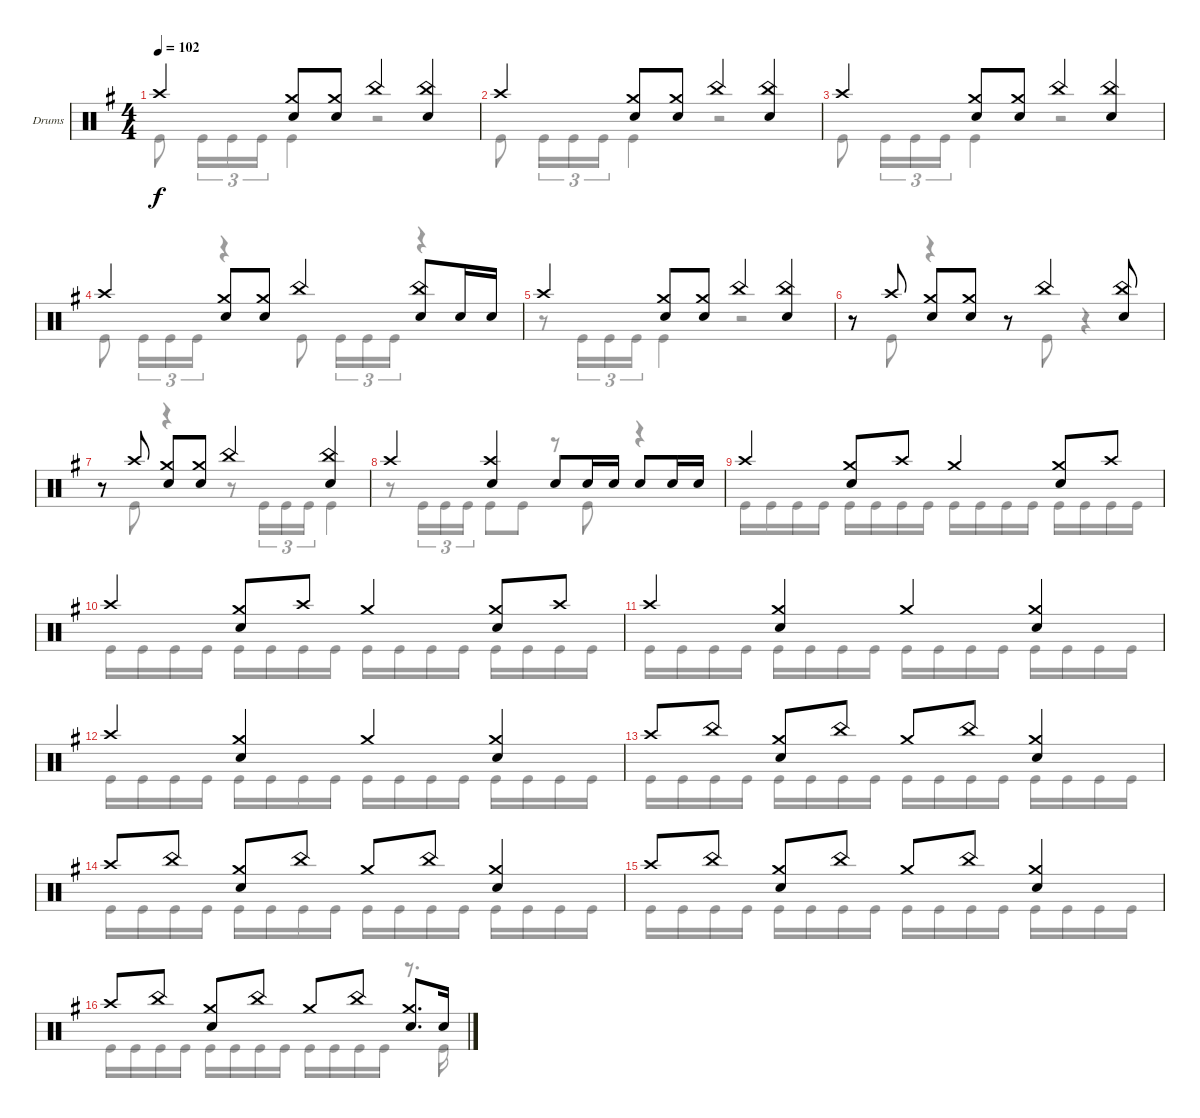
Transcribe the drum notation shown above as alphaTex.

\bracketExtendMode groupsimilarinstruments
\firstSystemTrackNameOrientation horizontal
\otherSystemsTrackNameOrientation horizontal
\track ("Drumkit" "Drums") {instrument percussion}
\staff {score}
\articulation defaults
\voice
\ts (4 4)
\tempo 102
\clef neutral
\ks g "Crash high (hit)".4{dy f}
("Crash medium (hit)" "Snare (hit) 2").8 ("Crash medium (hit)" "Snare (hit) 2").8 "China (hit)".4 ("China (hit)" "Snare (hit) 2").4 |
"Crash high (hit)".4 ("Crash medium (hit)" "Snare (hit) 2").8 ("Crash medium (hit)" "Snare (hit) 2").8 "China (hit)".4 ("China (hit)" "Snare (hit) 2").4 |
"Crash high (hit)".4 ("Crash medium (hit)" "Snare (hit) 2").8 ("Crash medium (hit)" "Snare (hit) 2").8 "China (hit)".4 ("China (hit)" "Snare (hit) 2").4 |
"Crash high (hit)".4 ("Crash medium (hit)" "Snare (hit) 2").8 ("Crash medium (hit)" "Snare (hit) 2").8 "China (hit)".4 ("China (hit)" "Snare (hit) 2").8 "Snare (hit) 2".16 "Snare (hit) 2".16 |
"Crash high (hit)".4 ("Crash medium (hit)" "Snare (hit) 2").8 ("Crash medium (hit)" "Snare (hit) 2").8 "China (hit)".4 ("China (hit)" "Snare (hit) 2").4 |
r.8 "Crash high (hit)".8 ("Crash medium (hit)" "Snare (hit) 2").8 ("Crash medium (hit)" "Snare (hit) 2").8 r.8 "China (hit)".4 ("China (hit)" "Snare (hit) 2").8 |
r.8 "Crash high (hit)".8 ("Crash medium (hit)" "Snare (hit) 2").8 ("Crash medium (hit)" "Snare (hit) 2").8 "China (hit)".4 ("China (hit)" "Snare (hit) 2").4 |
"Crash high (hit)".4 ("Crash high (hit)" "Snare (hit) 2").4 "Snare (hit) 2".8 "Snare (hit) 2".16 "Snare (hit) 2".16 "Snare (hit) 2".8 "Snare (hit) 2".16 "Snare (hit) 2".16 |
"Crash high (hit)".4 ("Crash medium (hit)" "Snare (hit) 2").8 "Crash high (hit)".8 "Crash medium (hit)".4 ("Crash medium (hit)" "Snare (hit) 2").8 "Crash high (hit)".8 |
"Crash high (hit)".4 ("Crash medium (hit)" "Snare (hit) 2").8 "Crash high (hit)".8 "Crash medium (hit)".4 ("Crash medium (hit)" "Snare (hit) 2").8 "Crash high (hit)".8 |
"Crash high (hit)".4 ("Crash medium (hit)" "Snare (hit) 2").4 "Crash medium (hit)".4 ("Crash medium (hit)" "Snare (hit) 2").4 |
"Crash high (hit)".4 ("Crash medium (hit)" "Snare (hit) 2").4 "Crash medium (hit)".4 ("Crash medium (hit)" "Snare (hit) 2").4 |
"Crash high (hit)".8 "China (hit)".8 ("Crash medium (hit)" "Snare (hit) 2").8 "China (hit)".8 "Crash medium (hit)".8 "China (hit)".8 ("Crash medium (hit)" "Snare (hit) 2").4 |
"Crash high (hit)".8 "China (hit)".8 ("Crash medium (hit)" "Snare (hit) 2").8 "China (hit)".8 "Crash medium (hit)".8 "China (hit)".8 ("Crash medium (hit)" "Snare (hit) 2").4 |
"Crash high (hit)".8 "China (hit)".8 ("Crash medium (hit)" "Snare (hit) 2").8 "China (hit)".8 "Crash medium (hit)".8 "China (hit)".8 ("Crash medium (hit)" "Snare (hit) 2").4 |
"Crash high (hit)".8 "China (hit)".8 ("Crash medium (hit)" "Snare (hit) 2").8 "China (hit)".8 "Crash medium (hit)".8 "China (hit)".8 ("Crash medium (hit)" "Snare (hit) 2").8{d} "Snare (hit) 2".16
\voice
\clef neutral
\ottava regular
\simile none
\ks g "Kick (hit)".8{dy f} "Kick (hit)".16{tu (3 2)} "Kick (hit)".16{tu (3 2)} "Kick (hit)".16{tu (3 2)} "Kick (hit)".4
r.2 |
"Kick (hit)".8 "Kick (hit)".16{tu (3 2)} "Kick (hit)".16{tu (3 2)} "Kick (hit)".16{tu (3 2)} "Kick (hit)".4 r.2 |
"Kick (hit)".8 "Kick (hit)".16{tu (3 2)} "Kick (hit)".16{tu (3 2)} "Kick (hit)".16{tu (3 2)} "Kick (hit)".4 r.2 |
"Kick (hit)".8 "Kick (hit)".16{tu (3 2)} "Kick (hit)".16{tu (3 2)} "Kick (hit)".16{tu (3 2)} r.4 "Kick (hit)".8 "Kick (hit)".16{tu (3 2)} "Kick (hit)".16{tu (3 2)} "Kick (hit)".16{tu (3 2)} r.4 |
r.8 "Kick (hit)".16{tu (3 2)} "Kick (hit)".16{tu (3 2)} "Kick (hit)".16{tu (3 2)} "Kick (hit)".4 r.2 |
r.8 "Kick (hit)".8 r.4 r.8 "Kick (hit)".8 r.4 |
r.8 "Kick (hit)".8 r.4 r.8 "Kick (hit)".16{tu (3 2)} "Kick (hit)".16{tu (3 2)} "Kick (hit)".16{tu (3 2)} "Kick (hit)".4 |
r.8 "Kick (hit)".16{tu (3 2)} "Kick (hit)".16{tu (3 2)} "Kick (hit)".16{tu (3 2)} "Kick (hit)".8 "Kick (hit)".8 r.8 "Kick (hit)".8 r.4 |
"Kick (hit)".16 "Kick (hit)".16 "Kick (hit)".16 "Kick (hit)".16 "Kick (hit)".16 "Kick (hit)".16 "Kick (hit)".16 "Kick (hit)".16 "Kick (hit)".16 "Kick (hit)".16 "Kick (hit)".16 "Kick (hit)".16 "Kick (hit)".16 "Kick (hit)".16 "Kick (hit)".16 "Kick (hit)".16 |
"Kick (hit)".16 "Kick (hit)".16 "Kick (hit)".16 "Kick (hit)".16 "Kick (hit)".16 "Kick (hit)".16 "Kick (hit)".16 "Kick (hit)".16 "Kick (hit)".16 "Kick (hit)".16 "Kick (hit)".16 "Kick (hit)".16 "Kick (hit)".16 "Kick (hit)".16 "Kick (hit)".16 "Kick (hit)".16 |
"Kick (hit)".16 "Kick (hit)".16 "Kick (hit)".16 "Kick (hit)".16 "Kick (hit)".16 "Kick (hit)".16 "Kick (hit)".16 "Kick (hit)".16 "Kick (hit)".16 "Kick (hit)".16 "Kick (hit)".16 "Kick (hit)".16 "Kick (hit)".16 "Kick (hit)".16 "Kick (hit)".16 "Kick (hit)".16 |
"Kick (hit)".16 "Kick (hit)".16 "Kick (hit)".16 "Kick (hit)".16 "Kick (hit)".16 "Kick (hit)".16 "Kick (hit)".16 "Kick (hit)".16 "Kick (hit)".16 "Kick (hit)".16 "Kick (hit)".16 "Kick (hit)".16 "Kick (hit)".16 "Kick (hit)".16 "Kick (hit)".16 "Kick (hit)".16 |
"Kick (hit)".16 "Kick (hit)".16 "Kick (hit)".16 "Kick (hit)".16 "Kick (hit)".16 "Kick (hit)".16 "Kick (hit)".16 "Kick (hit)".16 "Kick (hit)".16 "Kick (hit)".16 "Kick (hit)".16 "Kick (hit)".16 "Kick (hit)".16 "Kick (hit)".16 "Kick (hit)".16 "Kick (hit)".16 |
"Kick (hit)".16 "Kick (hit)".16 "Kick (hit)".16 "Kick (hit)".16 "Kick (hit)".16 "Kick (hit)".16 "Kick (hit)".16 "Kick (hit)".16 "Kick (hit)".16 "Kick (hit)".16 "Kick (hit)".16 "Kick (hit)".16 "Kick (hit)".16 "Kick (hit)".16 "Kick (hit)".16 "Kick (hit)".16 |
"Kick (hit)".16 "Kick (hit)".16 "Kick (hit)".16 "Kick (hit)".16 "Kick (hit)".16 "Kick (hit)".16 "Kick (hit)".16 "Kick (hit)".16 "Kick (hit)".16 "Kick (hit)".16 "Kick (hit)".16 "Kick (hit)".16 "Kick (hit)".16 "Kick (hit)".16 "Kick (hit)".16 "Kick (hit)".16 |
"Kick (hit)".16 "Kick (hit)".16 "Kick (hit)".16 "Kick (hit)".16 "Kick (hit)".16 "Kick (hit)".16 "Kick (hit)".16 "Kick (hit)".16 "Kick (hit)".16 "Kick (hit)".16 "Kick (hit)".16 "Kick (hit)".16 r.8{d} "Kick (hit)".16
